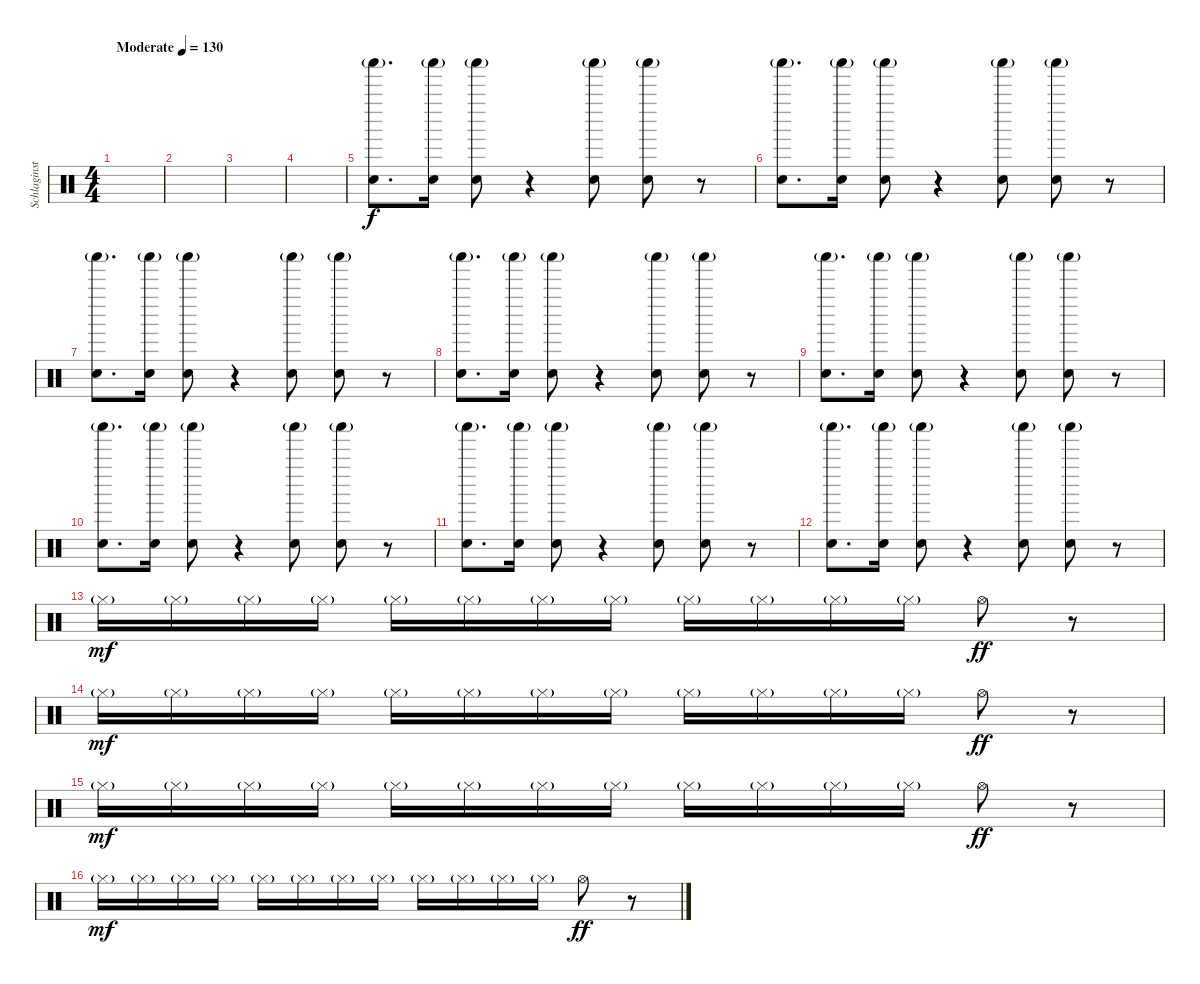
\track ("Schlaginstrumente - Auswahl" "Schlaginst") {instrument percussion}
\staff {score}
\articulation defaults
\ts (4 4)
\tempo (130 "Moderate")
\clef neutral
\ks c
|
|
|
|
("Shaker (hit)"{g} "Hand Clap (hit)").8{d volume 10} ("Shaker (hit)"{g} "Hand Clap (hit)").16 ("Shaker (hit)"{g} "Hand Clap (hit)").8 r.4 ("Shaker (hit)"{g} "Hand Clap (hit)").8 ("Shaker (hit)"{g} "Hand Clap (hit)").8 r.8 |
("Shaker (hit)"{g} "Hand Clap (hit)").8{d} ("Shaker (hit)"{g} "Hand Clap (hit)").16 ("Shaker (hit)"{g} "Hand Clap (hit)").8 r.4 ("Shaker (hit)"{g} "Hand Clap (hit)").8 ("Shaker (hit)"{g} "Hand Clap (hit)").8 r.8 |
("Shaker (hit)"{g} "Hand Clap (hit)").8{d} ("Shaker (hit)"{g} "Hand Clap (hit)").16 ("Shaker (hit)"{g} "Hand Clap (hit)").8 r.4 ("Shaker (hit)"{g} "Hand Clap (hit)").8 ("Shaker (hit)"{g} "Hand Clap (hit)").8 r.8 |
("Shaker (hit)"{g} "Hand Clap (hit)").8{d} ("Shaker (hit)"{g} "Hand Clap (hit)").16 ("Shaker (hit)"{g} "Hand Clap (hit)").8 r.4 ("Shaker (hit)"{g} "Hand Clap (hit)").8 ("Shaker (hit)"{g} "Hand Clap (hit)").8 r.8 |
("Shaker (hit)"{g} "Hand Clap (hit)").8{d volume 13} ("Shaker (hit)"{g} "Hand Clap (hit)").16 ("Shaker (hit)"{g} "Hand Clap (hit)").8 r.4 ("Shaker (hit)"{g} "Hand Clap (hit)").8 ("Shaker (hit)"{g} "Hand Clap (hit)").8 r.8 |
("Shaker (hit)"{g} "Hand Clap (hit)").8{d} ("Shaker (hit)"{g} "Hand Clap (hit)").16 ("Shaker (hit)"{g} "Hand Clap (hit)").8 r.4 ("Shaker (hit)"{g} "Hand Clap (hit)").8 ("Shaker (hit)"{g} "Hand Clap (hit)").8 r.8 |
("Shaker (hit)"{g} "Hand Clap (hit)").8{d} ("Shaker (hit)"{g} "Hand Clap (hit)").16 ("Shaker (hit)"{g} "Hand Clap (hit)").8 r.4 ("Shaker (hit)"{g} "Hand Clap (hit)").8 ("Shaker (hit)"{g} "Hand Clap (hit)").8 r.8 |
("Shaker (hit)"{g} "Hand Clap (hit)").8{d} ("Shaker (hit)"{g} "Hand Clap (hit)").16 ("Shaker (hit)"{g} "Hand Clap (hit)").8 r.4 ("Shaker (hit)"{g} "Hand Clap (hit)").8 ("Shaker (hit)"{g} "Hand Clap (hit)").8 r.8 |
"Hi-Hat (closed)"{g}.16{dy mf} "Hi-Hat (closed)"{g}.16 "Hi-Hat (closed)"{g}.16 "Hi-Hat (closed)"{g}.16 "Hi-Hat (closed)"{g}.16 "Hi-Hat (closed)"{g}.16 "Hi-Hat (closed)"{g}.16 "Hi-Hat (closed)"{g}.16 "Hi-Hat (closed)"{g}.16 "Hi-Hat (closed)"{g}.16 "Hi-Hat (closed)"{g}.16 "Hi-Hat (closed)"{g}.16 "Hi-Hat (open)".8{dy ff} r.8 |
"Hi-Hat (closed)"{g}.16{dy mf} "Hi-Hat (closed)"{g}.16 "Hi-Hat (closed)"{g}.16 "Hi-Hat (closed)"{g}.16 "Hi-Hat (closed)"{g}.16 "Hi-Hat (closed)"{g}.16 "Hi-Hat (closed)"{g}.16 "Hi-Hat (closed)"{g}.16 "Hi-Hat (closed)"{g}.16 "Hi-Hat (closed)"{g}.16 "Hi-Hat (closed)"{g}.16 "Hi-Hat (closed)"{g}.16 "Hi-Hat (open)".8{dy ff} r.8 |
"Hi-Hat (closed)"{g}.16{dy mf} "Hi-Hat (closed)"{g}.16 "Hi-Hat (closed)"{g}.16 "Hi-Hat (closed)"{g}.16 "Hi-Hat (closed)"{g}.16 "Hi-Hat (closed)"{g}.16 "Hi-Hat (closed)"{g}.16 "Hi-Hat (closed)"{g}.16 "Hi-Hat (closed)"{g}.16 "Hi-Hat (closed)"{g}.16 "Hi-Hat (closed)"{g}.16 "Hi-Hat (closed)"{g}.16 "Hi-Hat (open)".8{dy ff} r.8 |
"Hi-Hat (closed)"{g}.16{dy mf} "Hi-Hat (closed)"{g}.16 "Hi-Hat (closed)"{g}.16 "Hi-Hat (closed)"{g}.16 "Hi-Hat (closed)"{g}.16 "Hi-Hat (closed)"{g}.16 "Hi-Hat (closed)"{g}.16 "Hi-Hat (closed)"{g}.16 "Hi-Hat (closed)"{g}.16 "Hi-Hat (closed)"{g}.16 "Hi-Hat (closed)"{g}.16 "Hi-Hat (closed)"{g}.16 "Hi-Hat (open)".8{dy ff} r.8
